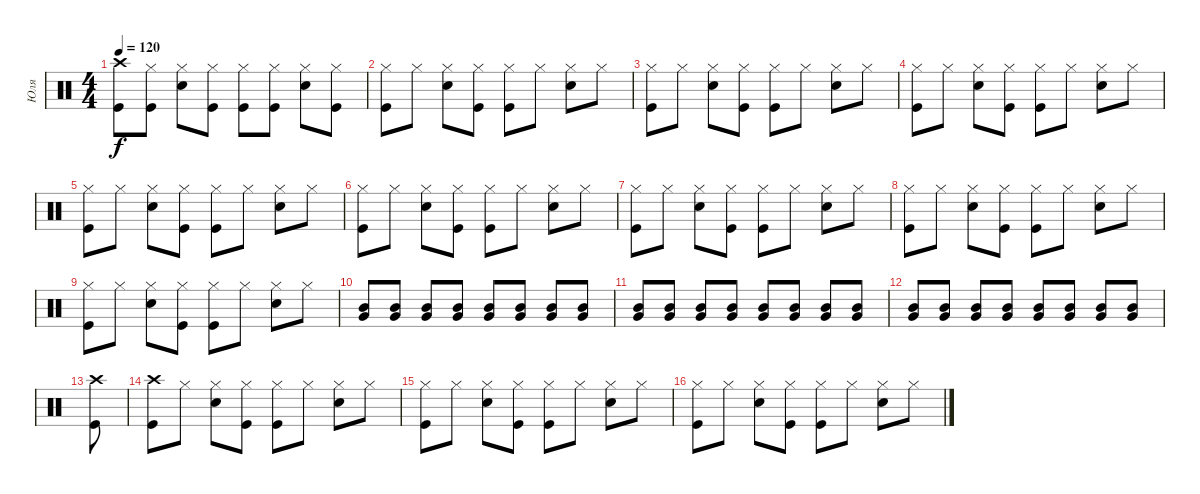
\track ("Юля" "Юля") {instrument percussion}
\staff {score}
\articulation defaults
\ts (4 4)
\tempo 120
\clef neutral
\ks c
("Crash high (hit)" "Kick (hit)").8{dy f} ("Hi-Hat (closed)" "Kick (hit)").8 ("Hi-Hat (closed)" "Snare (hit) 2").8 ("Hi-Hat (closed)" "Kick (hit)").8 ("Hi-Hat (closed)" "Kick (hit)").8 ("Hi-Hat (closed)" "Kick (hit)").8 ("Hi-Hat (closed)" "Snare (hit) 2").8 ("Hi-Hat (closed)" "Kick (hit)").8 |
("Hi-Hat (closed)" "Kick (hit)").8 "Hi-Hat (closed)".8 ("Hi-Hat (closed)" "Snare (hit) 2").8 ("Hi-Hat (closed)" "Kick (hit)").8 ("Hi-Hat (closed)" "Kick (hit)").8 "Hi-Hat (closed)".8 ("Hi-Hat (closed)" "Snare (hit) 2").8 "Hi-Hat (closed)".8 |
("Hi-Hat (closed)" "Kick (hit)").8 "Hi-Hat (closed)".8 ("Hi-Hat (closed)" "Snare (hit) 2").8 ("Hi-Hat (closed)" "Kick (hit)").8 ("Hi-Hat (closed)" "Kick (hit)").8 "Hi-Hat (closed)".8 ("Hi-Hat (closed)" "Snare (hit) 2").8 "Hi-Hat (closed)".8 |
("Hi-Hat (closed)" "Kick (hit)").8 "Hi-Hat (closed)".8 ("Hi-Hat (closed)" "Snare (hit) 2").8 ("Hi-Hat (closed)" "Kick (hit)").8 ("Hi-Hat (closed)" "Kick (hit)").8 "Hi-Hat (closed)".8 ("Hi-Hat (closed)" "Snare (hit) 2").8 "Hi-Hat (closed)".8 |
("Hi-Hat (closed)" "Kick (hit)").8 "Hi-Hat (closed)".8 ("Hi-Hat (closed)" "Snare (hit) 2").8 ("Hi-Hat (closed)" "Kick (hit)").8 ("Hi-Hat (closed)" "Kick (hit)").8 "Hi-Hat (closed)".8 ("Hi-Hat (closed)" "Snare (hit) 2").8 "Hi-Hat (closed)".8 |
("Hi-Hat (closed)" "Kick (hit)").8 "Hi-Hat (closed)".8 ("Hi-Hat (closed)" "Snare (hit) 2").8 ("Hi-Hat (closed)" "Kick (hit)").8 ("Hi-Hat (closed)" "Kick (hit)").8 "Hi-Hat (closed)".8 ("Hi-Hat (closed)" "Snare (hit) 2").8 "Hi-Hat (closed)".8 |
("Hi-Hat (closed)" "Kick (hit)").8 "Hi-Hat (closed)".8 ("Hi-Hat (closed)" "Snare (hit) 2").8 ("Hi-Hat (closed)" "Kick (hit)").8 ("Hi-Hat (closed)" "Kick (hit)").8 "Hi-Hat (closed)".8 ("Hi-Hat (closed)" "Snare (hit) 2").8 "Hi-Hat (closed)".8 |
("Hi-Hat (closed)" "Kick (hit)").8 "Hi-Hat (closed)".8 ("Hi-Hat (closed)" "Snare (hit) 2").8 ("Hi-Hat (closed)" "Kick (hit)").8 ("Hi-Hat (closed)" "Kick (hit)").8 "Hi-Hat (closed)".8 ("Hi-Hat (closed)" "Snare (hit) 2").8 "Hi-Hat (closed)".8 |
("Hi-Hat (closed)" "Kick (hit)").8 "Hi-Hat (closed)".8 ("Hi-Hat (closed)" "Snare (hit) 2").8 ("Hi-Hat (closed)" "Kick (hit)").8 ("Hi-Hat (closed)" "Kick (hit)").8 "Hi-Hat (closed)".8 ("Hi-Hat (closed)" "Snare (hit) 2").8 "Hi-Hat (closed)".8 |
("Mid Tom (hit)" "Very Low Tom (hit)").8 ("Mid Tom (hit)" "Very Low Tom (hit)").8 ("Mid Tom (hit)" "Very Low Tom (hit)").8 ("Mid Tom (hit)" "Very Low Tom (hit)").8 ("Mid Tom (hit)" "Very Low Tom (hit)").8 ("Mid Tom (hit)" "Very Low Tom (hit)").8 ("Mid Tom (hit)" "Very Low Tom (hit)").8 ("Mid Tom (hit)" "Very Low Tom (hit)").8 |
("Mid Tom (hit)" "Very Low Tom (hit)").8 ("Mid Tom (hit)" "Very Low Tom (hit)").8 ("Mid Tom (hit)" "Very Low Tom (hit)").8 ("Mid Tom (hit)" "Very Low Tom (hit)").8 ("Mid Tom (hit)" "Very Low Tom (hit)").8 ("Mid Tom (hit)" "Very Low Tom (hit)").8 ("Mid Tom (hit)" "Very Low Tom (hit)").8 ("Mid Tom (hit)" "Very Low Tom (hit)").8 |
("Mid Tom (hit)" "Very Low Tom (hit)").8 ("Mid Tom (hit)" "Very Low Tom (hit)").8 ("Mid Tom (hit)" "Very Low Tom (hit)").8 ("Mid Tom (hit)" "Very Low Tom (hit)").8 ("Mid Tom (hit)" "Very Low Tom (hit)").8 ("Mid Tom (hit)" "Very Low Tom (hit)").8 ("Mid Tom (hit)" "Very Low Tom (hit)").8 ("Mid Tom (hit)" "Very Low Tom (hit)").8 |
("Crash high (hit)" "Kick (hit)").8 |
("Crash high (hit)" "Kick (hit)").8 "Hi-Hat (closed)".8 ("Hi-Hat (closed)" "Snare (hit) 2").8 ("Hi-Hat (closed)" "Kick (hit)").8 ("Hi-Hat (closed)" "Kick (hit)").8 "Hi-Hat (closed)".8 ("Hi-Hat (closed)" "Snare (hit) 2").8 "Hi-Hat (closed)".8 |
("Hi-Hat (closed)" "Kick (hit)").8 "Hi-Hat (closed)".8 ("Hi-Hat (closed)" "Snare (hit) 2").8 ("Hi-Hat (closed)" "Kick (hit)").8 ("Hi-Hat (closed)" "Kick (hit)").8 "Hi-Hat (closed)".8 ("Hi-Hat (closed)" "Snare (hit) 2").8 "Hi-Hat (closed)".8 |
("Hi-Hat (closed)" "Kick (hit)").8 "Hi-Hat (closed)".8 ("Hi-Hat (closed)" "Snare (hit) 2").8 ("Hi-Hat (closed)" "Kick (hit)").8 ("Hi-Hat (closed)" "Kick (hit)").8 "Hi-Hat (closed)".8 ("Hi-Hat (closed)" "Snare (hit) 2").8 "Hi-Hat (closed)".8
